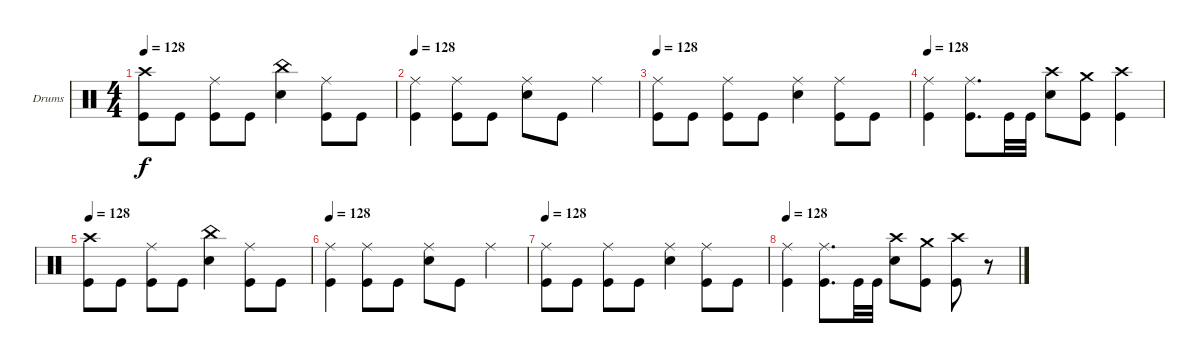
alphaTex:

\bracketExtendMode groupsimilarinstruments
\firstSystemTrackNameOrientation horizontal
\otherSystemsTrackNameOrientation horizontal
\track ("Drumkit" "Drums") {instrument percussion}
\staff {score}
\articulation defaults
\ts (4 4)
\tempo 128
\clef neutral
\ks c
("Crash high (hit)" "Kick (hit)").8{dy f} "Kick (hit)".8 ("Ride (middle)" "Kick (hit)").8 "Kick (hit)".8 ("China (hit)" "Snare (hit) 2").4 ("Ride (middle)" "Kick (hit)").8 "Kick (hit)".8 |
\tempo 128
("Ride (middle)" "Kick (hit)").4 ("Ride (middle)" "Kick (hit)").8 "Kick (hit)".8 ("Ride (middle)" "Snare (hit) 2").8 "Kick (hit)".8 "Ride (middle)".4 |
\tempo 128
("Ride (middle)" "Kick (hit)").8 "Kick (hit)".8 ("Ride (middle)" "Kick (hit)").8 "Kick (hit)".8 ("Ride (middle)" "Snare (hit) 2").4 ("Ride (middle)" "Kick (hit)").8 "Kick (hit)".8 |
\tempo 128
("Ride (middle)" "Kick (hit)").4 ("Ride (middle)" "Kick (hit)").8{d} "Kick (hit)".32 "Kick (hit)".32 ("Crash high (hit)" "Snare (hit) 2").8 ("Crash medium (hit)" "Kick (hit)").8 ("Crash high (hit)" "Kick (hit)").4 |
\tempo 128
("Crash high (hit)" "Kick (hit)").8 "Kick (hit)".8 ("Ride (middle)" "Kick (hit)").8 "Kick (hit)".8 ("China (hit)" "Snare (hit) 2").4 ("Ride (middle)" "Kick (hit)").8 "Kick (hit)".8 |
\tempo 128
("Ride (middle)" "Kick (hit)").4 ("Ride (middle)" "Kick (hit)").8 "Kick (hit)".8 ("Ride (middle)" "Snare (hit) 2").8 "Kick (hit)".8 "Ride (middle)".4 |
\tempo 128
("Ride (middle)" "Kick (hit)").8 "Kick (hit)".8 ("Ride (middle)" "Kick (hit)").8 "Kick (hit)".8 ("Ride (middle)" "Snare (hit) 2").4 ("Ride (middle)" "Kick (hit)").8 "Kick (hit)".8 |
\tempo 128
("Ride (middle)" "Kick (hit)").4 ("Ride (middle)" "Kick (hit)").8{d} "Kick (hit)".32 "Kick (hit)".32 ("Crash high (hit)" "Snare (hit) 2").8 ("Crash medium (hit)" "Kick (hit)").8 ("Crash high (hit)" "Kick (hit)").8 r.8
